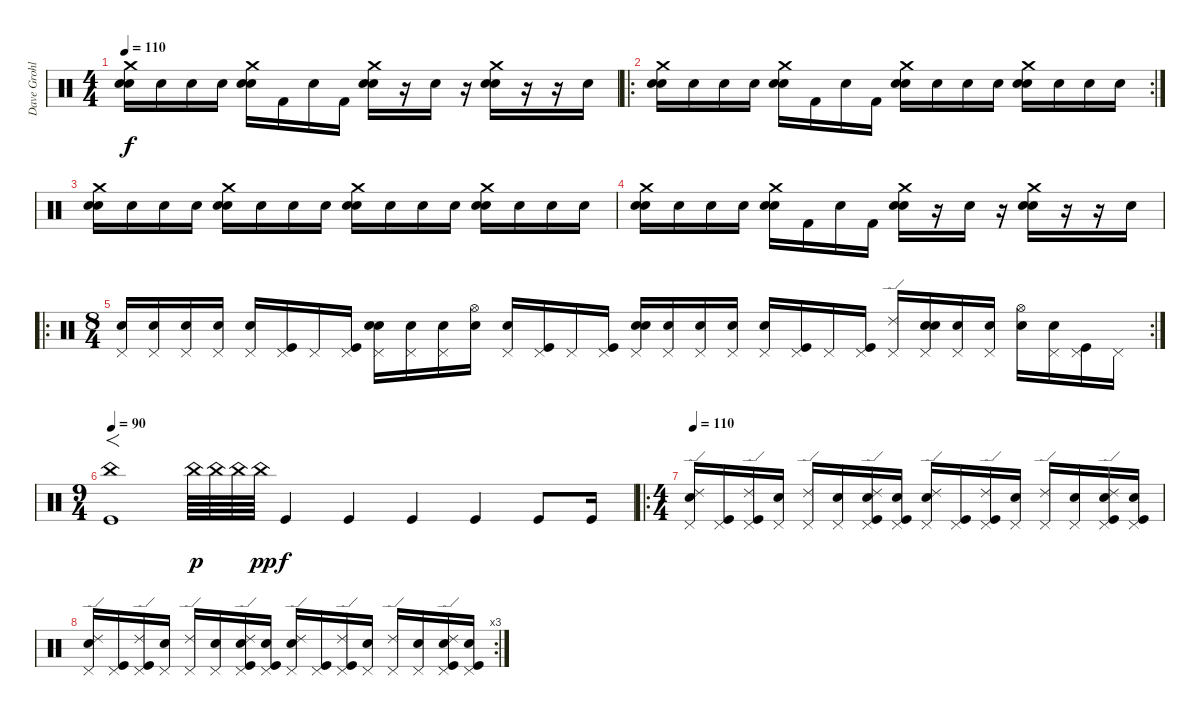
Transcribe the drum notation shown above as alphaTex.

\track ("Dave Grohl" "Dave Grohl") {instrument percussion}
\staff {score}
\articulation defaults
\ts (4 4)
\tempo 110
\clef neutral
\ks c
("Crash medium (hit)" "Electric Snare (hit)" "Snare (hit) 2").16{dy f} "Snare (hit) 2".16 "Snare (hit) 2".16 "Snare (hit) 2".16 ("Crash medium (hit)" "Electric Snare (hit)" "Snare (hit) 2").16 "Kick (hit) 2".16 "Snare (hit) 2".16 "Kick (hit) 2".16 ("Crash medium (hit)" "Electric Snare (hit)" "Snare (hit) 2").16 r.16 "Snare (hit) 2".16 r.16 ("Crash medium (hit)" "Electric Snare (hit)" "Snare (hit) 2").16 r.16 r.16 "Electric Snare (hit)".16 |
\ro
\rc 2
("Crash medium (hit)" "Electric Snare (hit)" "Snare (hit) 2").16 "Snare (hit) 2".16 "Snare (hit) 2".16 "Snare (hit) 2".16 ("Crash medium (hit)" "Electric Snare (hit)" "Snare (hit) 2").16 "Kick (hit) 2".16 "Snare (hit) 2".16 "Kick (hit) 2".16 ("Crash medium (hit)" "Electric Snare (hit)" "Snare (hit) 2").16 "Snare (hit) 2".16 "Snare (hit) 2".16 "Snare (hit) 2".16 ("Crash medium (hit)" "Electric Snare (hit)" "Snare (hit) 2").16 "Snare (hit) 2".16 "Snare (hit) 2".16 "Snare (hit) 2".16 |
("Crash medium (hit)" "Electric Snare (hit)" "Snare (hit) 2").16 "Snare (hit) 2".16 "Snare (hit) 2".16 "Snare (hit) 2".16 ("Crash medium (hit)" "Electric Snare (hit)" "Snare (hit) 2").16 "Snare (hit) 2".16 "Snare (hit) 2".16 "Snare (hit) 2".16 ("Crash medium (hit)" "Electric Snare (hit)" "Snare (hit) 2").16 "Snare (hit) 2".16 "Snare (hit) 2".16 "Snare (hit) 2".16 ("Crash medium (hit)" "Electric Snare (hit)" "Snare (hit) 2").16 "Snare (hit) 2".16 "Snare (hit) 2".16 "Snare (hit) 2".16 |
("Crash medium (hit)" "Electric Snare (hit)" "Snare (hit) 2").16 "Snare (hit) 2".16 "Snare (hit) 2".16 "Snare (hit) 2".16 ("Crash medium (hit)" "Electric Snare (hit)" "Snare (hit) 2").16 "Kick (hit) 2".16 "Snare (hit) 2".16 "Kick (hit) 2".16 ("Crash medium (hit)" "Electric Snare (hit)" "Snare (hit) 2").16 r.16 "Snare (hit) 2".16 r.16 ("Crash medium (hit)" "Electric Snare (hit)" "Snare (hit) 2").16 r.16 r.16 "Electric Snare (hit)".16 |
\ro
\rc 2
\ts (8 4)
("Pedal Hi-Hat (hit)" "Electric Snare (hit)").16{volume 13} ("Pedal Hi-Hat (hit)" "Electric Snare (hit)").16 ("Pedal Hi-Hat (hit)" "Electric Snare (hit)").16 ("Pedal Hi-Hat (hit)" "Electric Snare (hit)").16 ("Pedal Hi-Hat (hit)" "Electric Snare (hit)").16 ("Pedal Hi-Hat (hit)" "Kick (hit)").16 "Pedal Hi-Hat (hit)".16 ("Pedal Hi-Hat (hit)" "Kick (hit)").16 ("Pedal Hi-Hat (hit)" "Snare (hit) 2" "Electric Snare (hit)").16 ("Pedal Hi-Hat (hit)" "Electric Snare (hit)").16 ("Pedal Hi-Hat (hit)" "Electric Snare (hit)").16 ("Hi-Hat (open)" "Electric Snare (hit)").16 ("Pedal Hi-Hat (hit)" "Electric Snare (hit)").16 ("Pedal Hi-Hat (hit)" "Kick (hit)").16 "Pedal Hi-Hat (hit)".16 ("Pedal Hi-Hat (hit)" "Kick (hit)").16 ("Pedal Hi-Hat (hit)" "Snare (hit) 2" "Electric Snare (hit)").16 ("Pedal Hi-Hat (hit)" "Electric Snare (hit)").16 ("Pedal Hi-Hat (hit)" "Electric Snare (hit)").16 ("Pedal Hi-Hat (hit)" "Electric Snare (hit)").16 ("Pedal Hi-Hat (hit)" "Electric Snare (hit)").16 ("Pedal Hi-Hat (hit)" "Kick (hit)").16 "Pedal Hi-Hat (hit)".16 ("Pedal Hi-Hat (hit)" "Kick (hit)").16 ("Pedal Hi-Hat (hit)" "Ride (edge) 2").16 ("Pedal Hi-Hat (hit)" "Snare (hit) 2" "Electric Snare (hit)").16 ("Pedal Hi-Hat (hit)" "Electric Snare (hit)").16 ("Pedal Hi-Hat (hit)" "Electric Snare (hit)").16 ("Hi-Hat (open)" "Electric Snare (hit)").16 ("Pedal Hi-Hat (hit)" "Electric Snare (hit)").16 ("Pedal Hi-Hat (hit)" "Kick (hit)").16 "Pedal Hi-Hat (hit)".16 |
\ts (9 4)
\tempo 90
("China (hit)" "Kick (hit)").1{f} "China (hit)".64{dy p} "China (hit)".64 "China (hit)".64 "China (hit)".64{dy pp} "Kick (hit)".4{dy f} "Kick (hit)".4 "Kick (hit)".4 "Kick (hit)".4 "Kick (hit)".8 "Kick (hit)".16 |
\ro
\ts (4 4)
\tempo 110
("Pedal Hi-Hat (hit)" "Ride (edge) 2" "Electric Snare (hit)").16 ("Pedal Hi-Hat (hit)" "Kick (hit)").16 ("Pedal Hi-Hat (hit)" "Ride (edge) 2" "Kick (hit)").16 ("Pedal Hi-Hat (hit)" "Snare (hit) 2").16 ("Pedal Hi-Hat (hit)" "Ride (edge) 2").16 ("Pedal Hi-Hat (hit)" "Electric Snare (hit)").16 ("Pedal Hi-Hat (hit)" "Ride (edge) 2" "Snare (hit) 2" "Kick (hit)").16 ("Pedal Hi-Hat (hit)" "Snare (hit) 2" "Kick (hit)").16 ("Pedal Hi-Hat (hit)" "Ride (edge) 2" "Electric Snare (hit)").16 ("Pedal Hi-Hat (hit)" "Kick (hit)").16 ("Pedal Hi-Hat (hit)" "Ride (edge) 2" "Kick (hit)").16 ("Pedal Hi-Hat (hit)" "Snare (hit) 2").16 ("Pedal Hi-Hat (hit)" "Ride (edge) 2").16 ("Pedal Hi-Hat (hit)" "Electric Snare (hit)").16 ("Pedal Hi-Hat (hit)" "Ride (edge) 2" "Snare (hit) 2" "Kick (hit)").16 ("Pedal Hi-Hat (hit)" "Snare (hit) 2" "Kick (hit)").16 |
\rc 3
("Pedal Hi-Hat (hit)" "Ride (edge) 2" "Electric Snare (hit)").16 ("Pedal Hi-Hat (hit)" "Kick (hit)").16 ("Pedal Hi-Hat (hit)" "Ride (edge) 2" "Kick (hit)").16 ("Pedal Hi-Hat (hit)" "Snare (hit) 2").16 ("Pedal Hi-Hat (hit)" "Ride (edge) 2").16 ("Pedal Hi-Hat (hit)" "Electric Snare (hit)").16 ("Pedal Hi-Hat (hit)" "Ride (edge) 2" "Snare (hit) 2" "Kick (hit)").16 ("Pedal Hi-Hat (hit)" "Snare (hit) 2" "Kick (hit)").16 ("Pedal Hi-Hat (hit)" "Ride (edge) 2" "Electric Snare (hit)").16 ("Pedal Hi-Hat (hit)" "Kick (hit)").16 ("Pedal Hi-Hat (hit)" "Ride (edge) 2" "Kick (hit)").16 ("Pedal Hi-Hat (hit)" "Snare (hit) 2").16 ("Pedal Hi-Hat (hit)" "Ride (edge) 2").16 ("Pedal Hi-Hat (hit)" "Electric Snare (hit)").16 ("Pedal Hi-Hat (hit)" "Ride (edge) 2" "Snare (hit) 2" "Kick (hit)").16 ("Pedal Hi-Hat (hit)" "Snare (hit) 2" "Kick (hit)").16
